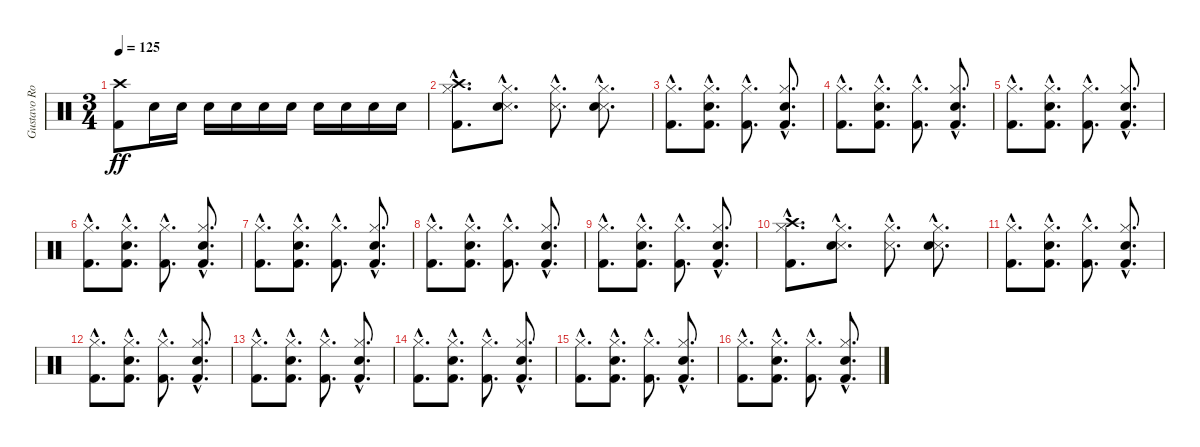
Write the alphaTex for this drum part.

\track ("Gustavo Rowek 2" "Gustavo Ro") {instrument percussion}
\staff {score}
\articulation defaults
\ts (3 4)
\tempo 125
\clef neutral
\ks c
("Kick (hit) 2" "Crash high (hit)").8{dy ff} "Electric Snare (hit)".16 "Electric Snare (hit)".16 "Electric Snare (hit)".16 "Electric Snare (hit)".16 "Electric Snare (hit)".16 "Electric Snare (hit)".16 "Electric Snare (hit)".16 "Electric Snare (hit)".16 "Electric Snare (hit)".16 "Electric Snare (hit)".16 |
("Kick (hit) 2"{hac} "Hi-Hat (closed)"{hac} "Crash high (hit)"{hac}).8{d} ("Snare (side stick) 3"{hac} "Snare (hit) 2"{hac} "Hi-Hat (closed)"{hac}).8{d} ("Snare (side stick) 3"{hac} "Hi-Hat (closed)"{hac}).8{d} ("Snare (side stick) 3"{hac} "Snare (hit) 2"{hac} "Hi-Hat (closed)"{hac}).8{d} |
("Kick (hit) 2"{hac} "Hi-Hat (closed)"{hac}).8{d} ("Kick (hit) 2"{hac} "Snare (hit) 2"{hac} "Hi-Hat (closed)"{hac}).8{d} ("Kick (hit) 2"{hac} "Hi-Hat (closed)"{hac}).8{d} ("Kick (hit) 2"{hac} "Snare (hit) 2"{hac} "Hi-Hat (closed)"{hac}).8{d} |
("Kick (hit) 2"{hac} "Hi-Hat (closed)"{hac}).8{d} ("Kick (hit) 2"{hac} "Snare (hit) 2"{hac} "Hi-Hat (closed)"{hac}).8{d} ("Kick (hit) 2"{hac} "Hi-Hat (closed)"{hac}).8{d} ("Kick (hit) 2"{hac} "Snare (hit) 2"{hac} "Hi-Hat (closed)"{hac}).8{d} |
("Kick (hit) 2"{hac} "Hi-Hat (closed)"{hac}).8{d} ("Kick (hit) 2"{hac} "Snare (hit) 2"{hac} "Hi-Hat (closed)"{hac}).8{d} ("Kick (hit) 2"{hac} "Hi-Hat (closed)"{hac}).8{d} ("Kick (hit) 2"{hac} "Snare (hit) 2"{hac} "Hi-Hat (closed)"{hac}).8{d} |
("Kick (hit) 2"{hac} "Hi-Hat (closed)"{hac}).8{d} ("Kick (hit) 2"{hac} "Snare (hit) 2"{hac} "Hi-Hat (closed)"{hac}).8{d} ("Kick (hit) 2"{hac} "Hi-Hat (closed)"{hac}).8{d} ("Kick (hit) 2"{hac} "Snare (hit) 2"{hac} "Hi-Hat (closed)"{hac}).8{d} |
("Kick (hit) 2"{hac} "Hi-Hat (closed)"{hac}).8{d} ("Kick (hit) 2"{hac} "Snare (hit) 2"{hac} "Hi-Hat (closed)"{hac}).8{d} ("Kick (hit) 2"{hac} "Hi-Hat (closed)"{hac}).8{d} ("Kick (hit) 2"{hac} "Snare (hit) 2"{hac} "Hi-Hat (closed)"{hac}).8{d} |
("Kick (hit) 2"{hac} "Hi-Hat (closed)"{hac}).8{d} ("Kick (hit) 2"{hac} "Snare (hit) 2"{hac} "Hi-Hat (closed)"{hac}).8{d} ("Kick (hit) 2"{hac} "Hi-Hat (closed)"{hac}).8{d} ("Kick (hit) 2"{hac} "Snare (hit) 2"{hac} "Hi-Hat (closed)"{hac}).8{d} |
("Kick (hit) 2"{hac} "Hi-Hat (closed)"{hac}).8{d} ("Kick (hit) 2"{hac} "Snare (hit) 2"{hac} "Hi-Hat (closed)"{hac}).8{d} ("Kick (hit) 2"{hac} "Hi-Hat (closed)"{hac}).8{d} ("Kick (hit) 2"{hac} "Snare (hit) 2"{hac} "Hi-Hat (closed)"{hac}).8{d} |
("Kick (hit) 2"{hac} "Hi-Hat (closed)"{hac} "Crash high (hit)"{hac}).8{d} ("Snare (side stick) 3"{hac} "Snare (hit) 2"{hac} "Hi-Hat (closed)"{hac}).8{d} ("Snare (side stick) 3"{hac} "Hi-Hat (closed)"{hac}).8{d} ("Snare (side stick) 3"{hac} "Snare (hit) 2"{hac} "Hi-Hat (closed)"{hac}).8{d} |
("Kick (hit) 2"{hac} "Hi-Hat (closed)"{hac}).8{d} ("Kick (hit) 2"{hac} "Snare (hit) 2"{hac} "Hi-Hat (closed)"{hac}).8{d} ("Kick (hit) 2"{hac} "Hi-Hat (closed)"{hac}).8{d} ("Kick (hit) 2"{hac} "Snare (hit) 2"{hac} "Hi-Hat (closed)"{hac}).8{d} |
("Kick (hit) 2"{hac} "Hi-Hat (closed)"{hac}).8{d} ("Kick (hit) 2"{hac} "Snare (hit) 2"{hac} "Hi-Hat (closed)"{hac}).8{d} ("Kick (hit) 2"{hac} "Hi-Hat (closed)"{hac}).8{d} ("Kick (hit) 2"{hac} "Snare (hit) 2"{hac} "Hi-Hat (closed)"{hac}).8{d} |
("Kick (hit) 2"{hac} "Hi-Hat (closed)"{hac}).8{d} ("Kick (hit) 2"{hac} "Snare (hit) 2"{hac} "Hi-Hat (closed)"{hac}).8{d} ("Kick (hit) 2"{hac} "Hi-Hat (closed)"{hac}).8{d} ("Kick (hit) 2"{hac} "Snare (hit) 2"{hac} "Hi-Hat (closed)"{hac}).8{d} |
("Kick (hit) 2"{hac} "Hi-Hat (closed)"{hac}).8{d} ("Kick (hit) 2"{hac} "Snare (hit) 2"{hac} "Hi-Hat (closed)"{hac}).8{d} ("Kick (hit) 2"{hac} "Hi-Hat (closed)"{hac}).8{d} ("Kick (hit) 2"{hac} "Snare (hit) 2"{hac} "Hi-Hat (closed)"{hac}).8{d} |
("Kick (hit) 2"{hac} "Hi-Hat (closed)"{hac}).8{d} ("Kick (hit) 2"{hac} "Snare (hit) 2"{hac} "Hi-Hat (closed)"{hac}).8{d} ("Kick (hit) 2"{hac} "Hi-Hat (closed)"{hac}).8{d} ("Kick (hit) 2"{hac} "Snare (hit) 2"{hac} "Hi-Hat (closed)"{hac}).8{d} |
("Kick (hit) 2"{hac} "Hi-Hat (closed)"{hac}).8{d} ("Kick (hit) 2"{hac} "Snare (hit) 2"{hac} "Hi-Hat (closed)"{hac}).8{d} ("Kick (hit) 2"{hac} "Hi-Hat (closed)"{hac}).8{d} ("Kick (hit) 2"{hac} "Snare (hit) 2"{hac} "Hi-Hat (closed)"{hac}).8{d}
